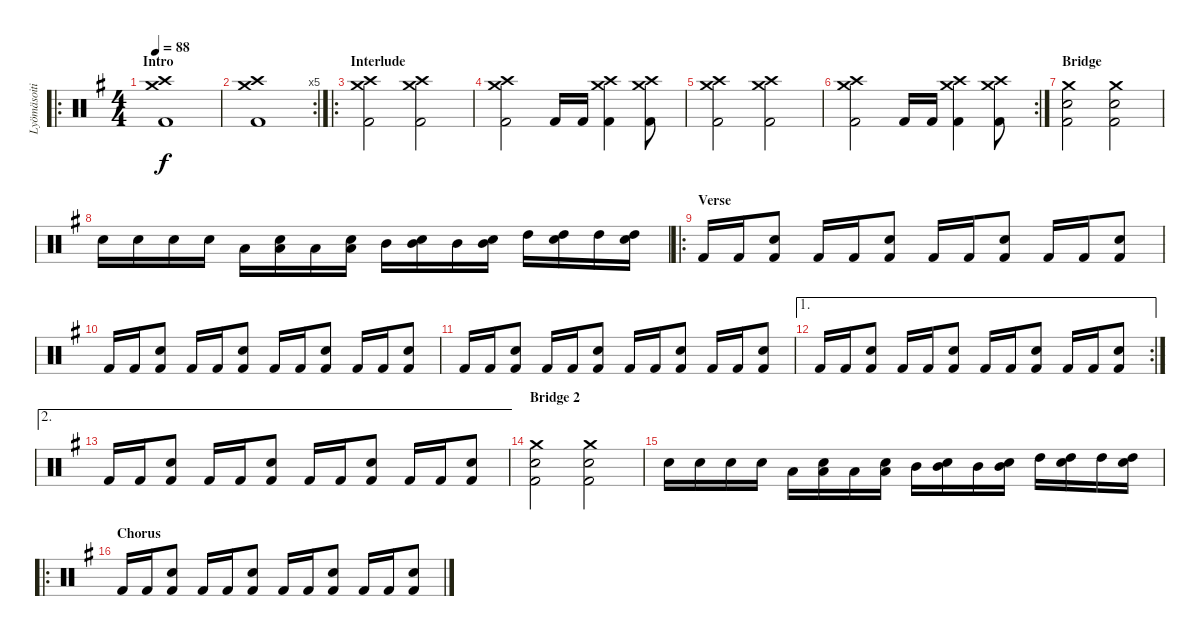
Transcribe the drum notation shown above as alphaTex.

\track ("Lyömäsoitin" "Lyömäsoiti") {instrument percussion}
\staff {score}
\articulation defaults
\ro
\ts (4 4)
\section ("" "Intro")
\tempo 88
\clef neutral
\ks eminor
("Crash medium (hit)" "Crash high (hit)" "Kick (hit) 2").1{dy f} |
\rc 5
("Crash medium (hit)" "Crash high (hit)" "Kick (hit) 2").1 |
\ro
\section ("" "Interlude")
("Crash medium (hit)" "Crash high (hit)" "Kick (hit) 2").2 ("Crash medium (hit)" "Crash high (hit)" "Kick (hit) 2").2 |
("Crash medium (hit)" "Crash high (hit)" "Kick (hit) 2").2 "Kick (hit) 2".16 "Kick (hit) 2".16 ("Crash medium (hit)" "Crash high (hit)" "Kick (hit) 2").4 ("Crash medium (hit)" "Crash high (hit)" "Kick (hit) 2").8 |
("Crash medium (hit)" "Crash high (hit)" "Kick (hit) 2").2 ("Crash medium (hit)" "Crash high (hit)" "Kick (hit) 2").2 |
\rc 2
("Crash medium (hit)" "Crash high (hit)" "Kick (hit) 2").2 "Kick (hit) 2".16 "Kick (hit) 2".16 ("Crash medium (hit)" "Crash high (hit)" "Kick (hit) 2").4 ("Crash medium (hit)" "Crash high (hit)" "Kick (hit) 2").8 |
\section ("" "Bridge")
("Crash medium (hit)" "Snare (hit) 2" "Kick (hit) 2").2 ("Crash medium (hit)" "Snare (hit) 2" "Kick (hit) 2").2 |
"Snare (hit) 2".16 "Snare (hit) 2".16 "Snare (hit) 2".16 "Snare (hit) 2".16 "Low Tom (hit)".16 ("Low Tom (hit)" "Snare (hit) 2").16 "Low Tom (hit)".16 ("Low Tom (hit)" "Snare (hit) 2").16 "Mid Tom (hit)".16 ("Mid Tom (hit)" "Snare (hit) 2").16 "Mid Tom (hit)".16 ("Mid Tom (hit)" "Snare (hit) 2").16 "High Tom (hit)".16 ("High Tom (hit)" "Snare (hit) 2").16 "High Tom (hit)".16 ("High Tom (hit)" "Snare (hit) 2").16 |
\ro
\section ("" "Verse")
"Kick (hit) 2".16 "Kick (hit) 2".16 ("Snare (hit) 2" "Kick (hit) 2").8 "Kick (hit) 2".16 "Kick (hit) 2".16 ("Snare (hit) 2" "Kick (hit) 2").8 "Kick (hit) 2".16 "Kick (hit) 2".16 ("Snare (hit) 2" "Kick (hit) 2").8 "Kick (hit) 2".16 "Kick (hit) 2".16 ("Snare (hit) 2" "Kick (hit) 2").8 |
"Kick (hit) 2".16 "Kick (hit) 2".16 ("Snare (hit) 2" "Kick (hit) 2").8 "Kick (hit) 2".16 "Kick (hit) 2".16 ("Snare (hit) 2" "Kick (hit) 2").8 "Kick (hit) 2".16 "Kick (hit) 2".16 ("Snare (hit) 2" "Kick (hit) 2").8 "Kick (hit) 2".16 "Kick (hit) 2".16 ("Snare (hit) 2" "Kick (hit) 2").8 |
"Kick (hit) 2".16 "Kick (hit) 2".16 ("Snare (hit) 2" "Kick (hit) 2").8 "Kick (hit) 2".16 "Kick (hit) 2".16 ("Snare (hit) 2" "Kick (hit) 2").8 "Kick (hit) 2".16 "Kick (hit) 2".16 ("Snare (hit) 2" "Kick (hit) 2").8 "Kick (hit) 2".16 "Kick (hit) 2".16 ("Snare (hit) 2" "Kick (hit) 2").8 |
\ae 1
\rc 2 "Kick (hit) 2".16 "Kick (hit) 2".16
("Snare (hit) 2" "Kick (hit) 2").8 "Kick (hit) 2".16 "Kick (hit) 2".16 ("Snare (hit) 2" "Kick (hit) 2").8 "Kick (hit) 2".16 "Kick (hit) 2".16 ("Snare (hit) 2" "Kick (hit) 2").8 "Kick (hit) 2".16 "Kick (hit) 2".16 ("Snare (hit) 2" "Kick (hit) 2").8 |
\ae 2 "Kick (hit) 2".16 "Kick (hit) 2".16
("Snare (hit) 2" "Kick (hit) 2").8 "Kick (hit) 2".16 "Kick (hit) 2".16 ("Snare (hit) 2" "Kick (hit) 2").8 "Kick (hit) 2".16 "Kick (hit) 2".16 ("Snare (hit) 2" "Kick (hit) 2").8 "Kick (hit) 2".16 "Kick (hit) 2".16 ("Snare (hit) 2" "Kick (hit) 2").8 |
\section ("" "Bridge 2")
("Crash medium (hit)" "Snare (hit) 2" "Kick (hit) 2").2 ("Crash medium (hit)" "Snare (hit) 2" "Kick (hit) 2").2 |
"Snare (hit) 2".16 "Snare (hit) 2".16 "Snare (hit) 2".16 "Snare (hit) 2".16 "Low Tom (hit)".16 ("Low Tom (hit)" "Snare (hit) 2").16 "Low Tom (hit)".16 ("Low Tom (hit)" "Snare (hit) 2").16 "Mid Tom (hit)".16 ("Mid Tom (hit)" "Snare (hit) 2").16 "Mid Tom (hit)".16 ("Mid Tom (hit)" "Snare (hit) 2").16 "High Tom (hit)".16 ("High Tom (hit)" "Snare (hit) 2").16 "High Tom (hit)".16 ("High Tom (hit)" "Snare (hit) 2").16 |
\ro
\section ("" "Chorus")
"Kick (hit) 2".16 "Kick (hit) 2".16 ("Snare (hit) 2" "Kick (hit) 2").8 "Kick (hit) 2".16 "Kick (hit) 2".16 ("Snare (hit) 2" "Kick (hit) 2").8 "Kick (hit) 2".16 "Kick (hit) 2".16 ("Snare (hit) 2" "Kick (hit) 2").8 "Kick (hit) 2".16 "Kick (hit) 2".16 ("Snare (hit) 2" "Kick (hit) 2").8
